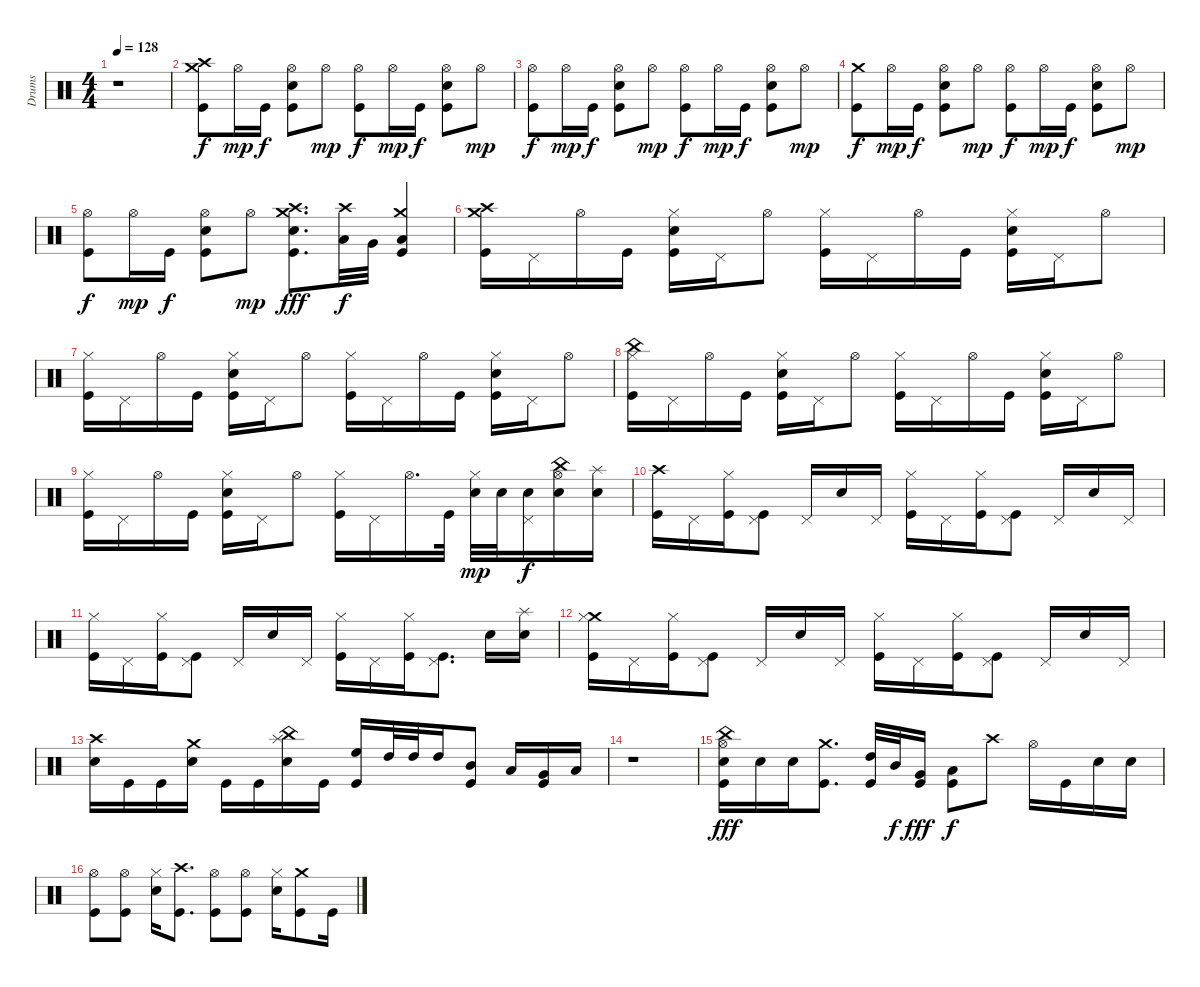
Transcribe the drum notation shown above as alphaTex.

\track ("Drums" "Drums") {instrument percussion}
\staff {score}
\articulation defaults
\ts (4 4)
\tempo 128
\clef neutral
\ks c
r.1{dy f} |
("Kick (hit)" "Crash medium (hit)" "Crash high (hit)").8 "Hi-Hat (open)".16{dy mp} "Kick (hit)".16{dy f} ("Snare (hit) 2" "Kick (hit)" "Hi-Hat (open)").8 "Hi-Hat (open)".8{dy mp} ("Kick (hit)" "Hi-Hat (open)").8{dy f} "Hi-Hat (open)".16{dy mp} "Kick (hit)".16{dy f} ("Snare (hit) 2" "Kick (hit)" "Hi-Hat (open)").8 "Hi-Hat (open)".8{dy mp} |
("Hi-Hat (open)" "Kick (hit)").8{dy f} "Hi-Hat (open)".16{dy mp} "Kick (hit)".16{dy f} ("Hi-Hat (open)" "Snare (hit) 2" "Kick (hit)").8 "Hi-Hat (open)".8{dy mp} ("Hi-Hat (open)" "Kick (hit)").8{dy f} "Hi-Hat (open)".16{dy mp} "Kick (hit)".16{dy f} ("Hi-Hat (open)" "Snare (hit) 2" "Kick (hit)").8 "Hi-Hat (open)".8{dy mp} |
("Crash medium (hit)" "Kick (hit)").8{dy f} "Hi-Hat (open)".16{dy mp} "Kick (hit)".16{dy f} ("Snare (hit) 2" "Kick (hit)" "Hi-Hat (open)").8 "Hi-Hat (open)".8{dy mp} ("Kick (hit)" "Hi-Hat (open)").8{dy f} "Hi-Hat (open)".16{dy mp} "Kick (hit)".16{dy f} ("Snare (hit) 2" "Kick (hit)" "Hi-Hat (open)").8 "Hi-Hat (open)".8{dy mp} |
("Kick (hit)" "Hi-Hat (open)").8{dy f} "Hi-Hat (open)".16{dy mp} "Kick (hit)".16{dy f} ("Snare (hit) 2" "Kick (hit)" "Hi-Hat (open)").8 "Hi-Hat (open)".8{dy mp} ("Crash medium (hit)" "Crash high (hit)" "Snare (hit) 2" "Kick (hit)").8{d dy fff} ("Crash high (hit)" "Low Tom (hit)").32{dy f} "Very Low Tom (hit)".32 ("Crash medium (hit)" "Kick (hit)" "Low Floor Tom (hit)").4 |
("Crash medium (hit)" "Crash high (hit)" "Kick (hit)").16 "Pedal Hi-Hat (hit)".16 "Hi-Hat (open)".16 "Kick (hit)".16 ("Hi-Hat (closed)" "Snare (hit) 2" "Kick (hit)").16 "Pedal Hi-Hat (hit)".16 "Hi-Hat (open)".8 ("Hi-Hat (closed)" "Kick (hit)").16 "Pedal Hi-Hat (hit)".16 "Hi-Hat (open)".16 "Kick (hit)".16 ("Hi-Hat (closed)" "Snare (hit) 2" "Kick (hit)").16 "Pedal Hi-Hat (hit)".16 "Hi-Hat (open)".8 |
("Hi-Hat (closed)" "Kick (hit)").16 "Pedal Hi-Hat (hit)".16 "Hi-Hat (open)".16 "Kick (hit)".16 ("Hi-Hat (closed)" "Snare (hit) 2" "Kick (hit)").16 "Pedal Hi-Hat (hit)".16 "Hi-Hat (open)".8 ("Hi-Hat (closed)" "Kick (hit)").16 "Pedal Hi-Hat (hit)".16 "Hi-Hat (open)".16 "Kick (hit)".16 ("Hi-Hat (closed)" "Snare (hit) 2" "Kick (hit)").16 "Pedal Hi-Hat (hit)".16 "Hi-Hat (open)".8 |
("China (hit)" "Hi-Hat (closed)" "Kick (hit)").16 "Pedal Hi-Hat (hit)".16 "Hi-Hat (open)".16 "Kick (hit)".16 ("Hi-Hat (closed)" "Snare (hit) 2" "Kick (hit)").16 "Pedal Hi-Hat (hit)".16 "Hi-Hat (open)".8 ("Hi-Hat (closed)" "Kick (hit)").16 "Pedal Hi-Hat (hit)".16 "Hi-Hat (open)".16 "Kick (hit)".16 ("Hi-Hat (closed)" "Snare (hit) 2" "Kick (hit)").16 "Pedal Hi-Hat (hit)".16 "Hi-Hat (open)".8 |
("Hi-Hat (closed)" "Kick (hit)").16 "Pedal Hi-Hat (hit)".16 "Hi-Hat (open)".16 "Kick (hit)".16 ("Hi-Hat (closed)" "Snare (hit) 2" "Kick (hit)").16 "Pedal Hi-Hat (hit)".16 "Hi-Hat (open)".8 ("Hi-Hat (closed)" "Kick (hit)").16 "Pedal Hi-Hat (hit)".16 "Hi-Hat (open)".16{d} "Kick (hit)".32 ("Hi-Hat (closed)" "Snare (hit) 2").32{dy mp} "Snare (hit) 2".32 ("Pedal Hi-Hat (hit)" "Snare (hit) 2").16{dy f} ("Hi-Hat (open)" "China (hit)" "Snare (hit) 2").16 ("Splash (hit)" "Snare (hit) 2").16 |
("Kick (hit)" "Crash high (hit)").16 "Pedal Hi-Hat (hit)".16 ("Hi-Hat (closed)" "Kick (hit)").16 ("Pedal Hi-Hat (hit)" "Kick (hit)").8 "Pedal Hi-Hat (hit)".16 "Snare (hit) 2".16 "Pedal Hi-Hat (hit)".16 ("Hi-Hat (closed)" "Kick (hit)").16 "Pedal Hi-Hat (hit)".16 ("Hi-Hat (closed)" "Kick (hit)").16 ("Pedal Hi-Hat (hit)" "Kick (hit)").8 "Pedal Hi-Hat (hit)".16 "Snare (hit) 2".16 "Pedal Hi-Hat (hit)".16 |
("Hi-Hat (closed)" "Kick (hit)").16 "Pedal Hi-Hat (hit)".16 ("Hi-Hat (closed)" "Kick (hit)").16 ("Kick (hit)" "Pedal Hi-Hat (hit)").8 "Pedal Hi-Hat (hit)".16 "Snare (hit) 2".16 "Pedal Hi-Hat (hit)".16 ("Hi-Hat (closed)" "Kick (hit)").16 "Pedal Hi-Hat (hit)".16 ("Hi-Hat (closed)" "Kick (hit)").16 ("Pedal Hi-Hat (hit)" "Kick (hit)").8{d} "Snare (hit) 2".16 ("Splash (hit)" "Snare (hit) 2").16 |
("Crash medium (hit)" "Hi-Hat (closed)" "Kick (hit)").16 "Pedal Hi-Hat (hit)".16 ("Kick (hit)" "Hi-Hat (closed)").16 ("Pedal Hi-Hat (hit)" "Kick (hit)").8 "Pedal Hi-Hat (hit)".16 "Snare (hit) 2".16 "Pedal Hi-Hat (hit)".16 ("Hi-Hat (closed)" "Kick (hit)").16 "Pedal Hi-Hat (hit)".16 ("Hi-Hat (closed)" "Kick (hit)").16 ("Pedal Hi-Hat (hit)" "Kick (hit)").8 "Pedal Hi-Hat (hit)".16 "Snare (hit) 2".16 "Pedal Hi-Hat (hit)".16 |
("Crash high (hit)" "Snare (hit) 2").16 "Kick (hit)".16 "Kick (hit)".16 ("Snare (hit) 2" "Crash medium (hit)").16 "Kick (hit)".16 "Kick (hit)".16 ("Splash (hit)" "China (hit)" "Snare (hit) 2").16 "Kick (hit)".16 ("High Floor Tom (hit)" "Kick (hit)").16 "High Tom (hit)".32 "High Tom (hit)".32 "High Tom (hit)".16 ("Mid Tom (hit)" "Kick (hit)").8 "Low Tom (hit)".16 ("Very Low Tom (hit)" "Kick (hit)").16 "Low Floor Tom (hit)".16 |
r.1 |
("Hi-Hat (open)" "China (hit)" "Kick (hit)" "Snare (hit) 2").16{dy fff} "Snare (hit) 2".16 "Snare (hit) 2".16 ("Kick (hit)" "Crash medium (hit)").8{d} ("Kick (hit)" "High Tom (hit)").32 "Mid Tom (hit)".32{dy f} ("Kick (hit)" "Very Low Tom (hit)").16{dy fff} ("Low Floor Tom (hit)" "Kick (hit)").8{dy f} "Crash high (hit)".8 "Hi-Hat (open)".16 "Kick (hit)".16 "Snare (hit) 2".16 "Snare (hit) 2".16 |
("Hi-Hat (open)" "Kick (hit)").8 ("Kick (hit)" "Hi-Hat (open)").8 ("Hi-Hat (closed)" "Snare (hit) 2").16 ("Crash high (hit)" "Kick (hit)").8{d} ("Hi-Hat (open)" "Kick (hit)").8 ("Hi-Hat (open)" "Kick (hit)").8 ("Hi-Hat (closed)" "Snare (hit) 2").16 ("Crash medium (hit)" "Kick (hit)").8 "Kick (hit)".16
